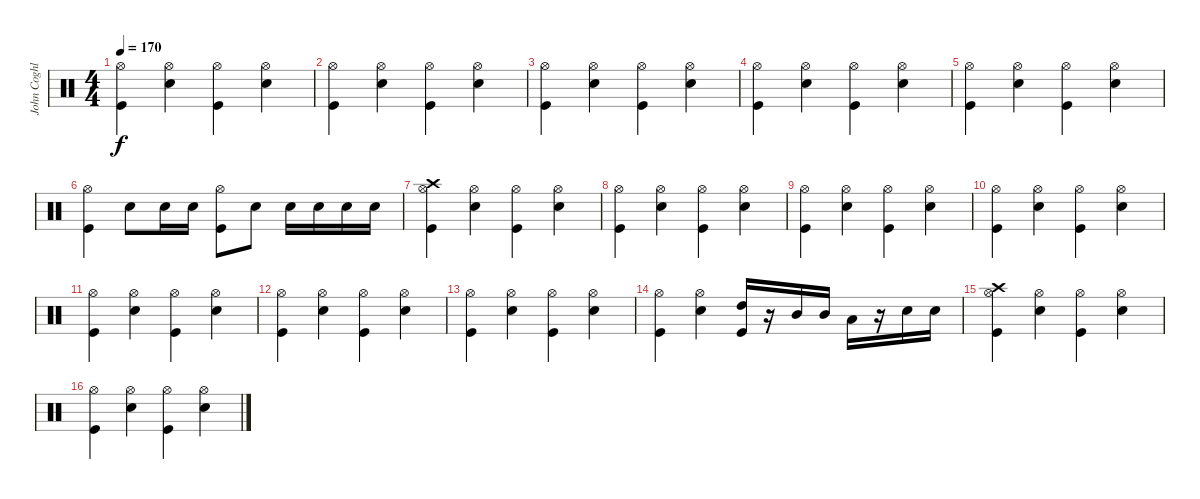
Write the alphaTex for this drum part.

\track ("John Coghlan" "John Coghl") {instrument percussion}
\staff {score}
\articulation defaults
\ts (4 4)
\tempo 170
\clef neutral
\ks c
("Hi-Hat (open)" "Kick (hit)").4{dy f} ("Electric Snare (hit)" "Hi-Hat (open)").4 ("Hi-Hat (open)" "Kick (hit)").4 ("Electric Snare (hit)" "Hi-Hat (open)").4 |
("Hi-Hat (open)" "Kick (hit)").4 ("Electric Snare (hit)" "Hi-Hat (open)").4 ("Hi-Hat (open)" "Kick (hit)").4 ("Electric Snare (hit)" "Hi-Hat (open)").4 |
("Hi-Hat (open)" "Kick (hit)").4 ("Electric Snare (hit)" "Hi-Hat (open)").4 ("Hi-Hat (open)" "Kick (hit)").4 ("Electric Snare (hit)" "Hi-Hat (open)").4 |
("Hi-Hat (open)" "Kick (hit)").4 ("Electric Snare (hit)" "Hi-Hat (open)").4 ("Hi-Hat (open)" "Kick (hit)").4 ("Electric Snare (hit)" "Hi-Hat (open)").4 |
("Hi-Hat (open)" "Kick (hit)").4 ("Electric Snare (hit)" "Hi-Hat (open)").4 ("Hi-Hat (open)" "Kick (hit)").4 ("Electric Snare (hit)" "Hi-Hat (open)").4 |
("Hi-Hat (open)" "Kick (hit)").4 "Electric Snare (hit)".8 "Electric Snare (hit)".16 "Electric Snare (hit)".16 ("Hi-Hat (open)" "Kick (hit)").8 "Electric Snare (hit)".8 "Electric Snare (hit)".16 "Electric Snare (hit)".16 "Electric Snare (hit)".16 "Electric Snare (hit)".16 |
("Crash high (hit)" "Hi-Hat (open)" "Kick (hit)").4 ("Electric Snare (hit)" "Hi-Hat (open)").4 ("Hi-Hat (open)" "Kick (hit)").4 ("Electric Snare (hit)" "Hi-Hat (open)").4 |
("Hi-Hat (open)" "Kick (hit)").4 ("Electric Snare (hit)" "Hi-Hat (open)").4 ("Hi-Hat (open)" "Kick (hit)").4 ("Electric Snare (hit)" "Hi-Hat (open)").4 |
("Hi-Hat (open)" "Kick (hit)").4 ("Electric Snare (hit)" "Hi-Hat (open)").4 ("Hi-Hat (open)" "Kick (hit)").4 ("Electric Snare (hit)" "Hi-Hat (open)").4 |
("Hi-Hat (open)" "Kick (hit)").4 ("Electric Snare (hit)" "Hi-Hat (open)").4 ("Hi-Hat (open)" "Kick (hit)").4 ("Electric Snare (hit)" "Hi-Hat (open)").4 |
("Hi-Hat (open)" "Kick (hit)").4 ("Electric Snare (hit)" "Hi-Hat (open)").4 ("Hi-Hat (open)" "Kick (hit)").4 ("Electric Snare (hit)" "Hi-Hat (open)").4 |
("Hi-Hat (open)" "Kick (hit)").4 ("Electric Snare (hit)" "Hi-Hat (open)").4 ("Hi-Hat (open)" "Kick (hit)").4 ("Electric Snare (hit)" "Hi-Hat (open)").4 |
("Hi-Hat (open)" "Kick (hit)").4 ("Electric Snare (hit)" "Hi-Hat (open)").4 ("Hi-Hat (open)" "Kick (hit)").4 ("Electric Snare (hit)" "Hi-Hat (open)").4 |
("Hi-Hat (open)" "Kick (hit)").4 ("Electric Snare (hit)" "Hi-Hat (open)").4 ("High Tom (hit)" "Kick (hit)").16 r.16 "Mid Tom (hit)".16 "Mid Tom (hit)".16 "Low Tom (hit)".16 r.16 "Electric Snare (hit)".16 "Electric Snare (hit)".16 |
("Crash high (hit)" "Hi-Hat (open)" "Kick (hit)").4 ("Electric Snare (hit)" "Hi-Hat (open)").4 ("Hi-Hat (open)" "Kick (hit)").4 ("Electric Snare (hit)" "Hi-Hat (open)").4 |
("Hi-Hat (open)" "Kick (hit)").4 ("Electric Snare (hit)" "Hi-Hat (open)").4 ("Hi-Hat (open)" "Kick (hit)").4 ("Electric Snare (hit)" "Hi-Hat (open)").4
